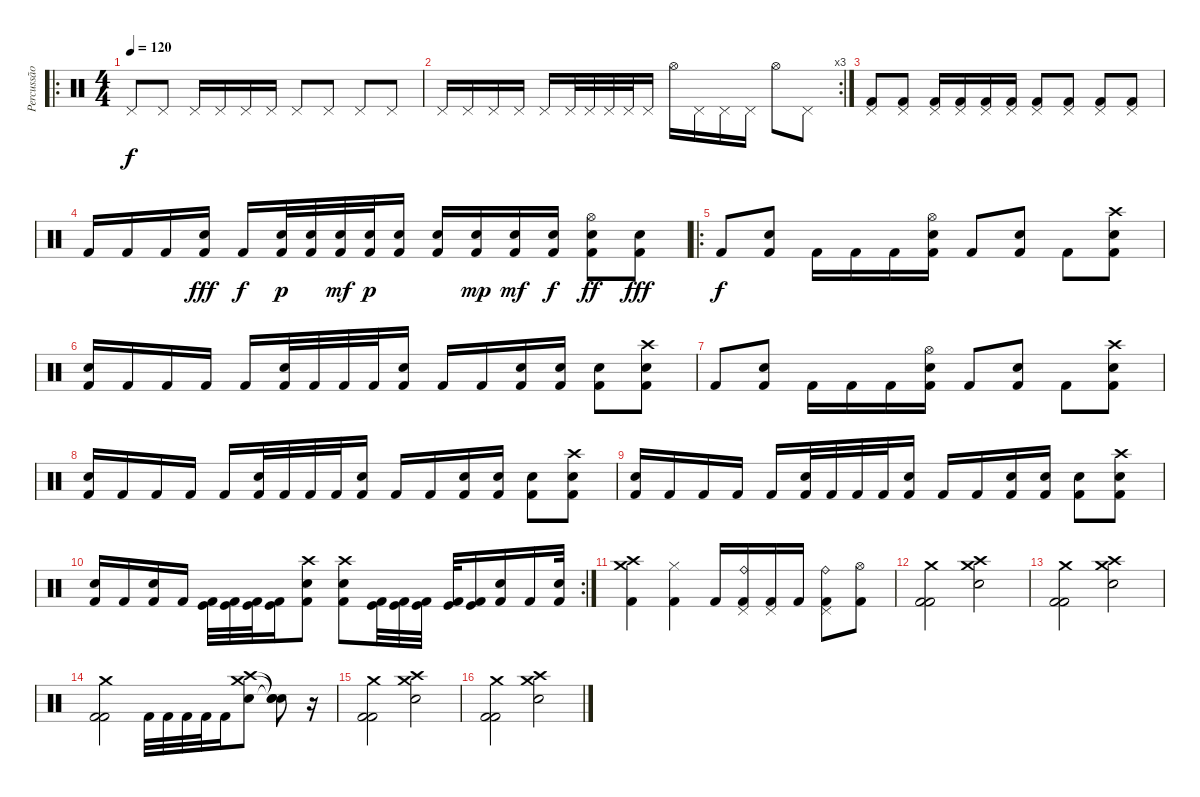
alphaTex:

\track ("Percussão" "Percussão") {instrument percussion}
\staff {score}
\articulation defaults
\ro
\ts (4 4)
\tempo 120
\clef neutral
\ks c "Pedal Hi-Hat (hit)".8{dy f} "Pedal Hi-Hat (hit)".8 "Pedal Hi-Hat (hit)".16 "Pedal Hi-Hat (hit)".16 "Pedal Hi-Hat (hit)".16 "Pedal Hi-Hat (hit)".16 "Pedal Hi-Hat (hit)".8 "Pedal Hi-Hat (hit)".8 "Pedal Hi-Hat (hit)".8 "Pedal Hi-Hat (hit)".8
|
\rc 3 "Pedal Hi-Hat (hit)".16 "Pedal Hi-Hat (hit)".16 "Pedal Hi-Hat (hit)".16 "Pedal Hi-Hat (hit)".16 "Pedal Hi-Hat (hit)".16 "Pedal Hi-Hat (hit)".32 "Pedal Hi-Hat (hit)".32 "Pedal Hi-Hat (hit)".32 "Pedal Hi-Hat (hit)".32 "Pedal Hi-Hat (hit)".16 "Hi-Hat (open)".16 "Pedal Hi-Hat (hit)".16 "Pedal Hi-Hat (hit)".16 "Pedal Hi-Hat (hit)".16 "Hi-Hat (open)".8 "Pedal Hi-Hat (hit)".8
|
("Kick (hit) 2" "Pedal Hi-Hat (hit)").8 ("Kick (hit) 2" "Pedal Hi-Hat (hit)").8 ("Kick (hit) 2" "Pedal Hi-Hat (hit)").16 ("Kick (hit) 2" "Pedal Hi-Hat (hit)").16 ("Kick (hit) 2" "Pedal Hi-Hat (hit)").16 ("Kick (hit) 2" "Pedal Hi-Hat (hit)").16 ("Kick (hit) 2" "Pedal Hi-Hat (hit)").8 ("Kick (hit) 2" "Pedal Hi-Hat (hit)").8 ("Kick (hit) 2" "Pedal Hi-Hat (hit)").8 ("Kick (hit) 2" "Pedal Hi-Hat (hit)").8 |
"Kick (hit) 2".16 "Kick (hit) 2".16 "Kick (hit) 2".16 ("Kick (hit) 2" "Snare (hit) 2").16{dy fff} "Kick (hit) 2".16{dy f} ("Kick (hit) 2" "Snare (hit) 2").32{dy p} ("Kick (hit) 2" "Snare (hit) 2").32 ("Kick (hit) 2" "Snare (hit) 2").32{dy mf} ("Kick (hit) 2" "Snare (hit) 2").32{dy p} ("Kick (hit) 2" "Snare (hit) 2").16 ("Kick (hit) 2" "Snare (hit) 2").16 ("Kick (hit) 2" "Snare (hit) 2").16{dy mp} ("Kick (hit) 2" "Snare (hit) 2").16{dy mf} ("Kick (hit) 2" "Snare (hit) 2").16{dy f} ("Kick (hit) 2" "Hi-Hat (open)" "Snare (hit) 2").8{dy ff} ("Kick (hit) 2" "Snare (hit) 2").8{dy fff} |
\ro "Kick (hit) 2".8{dy f}
("Kick (hit) 2" "Snare (hit) 2").8 "Kick (hit) 2".16 "Kick (hit) 2".16 "Kick (hit) 2".16 ("Kick (hit) 2" "Snare (hit) 2" "Hi-Hat (open)").16 "Kick (hit) 2".8 ("Kick (hit) 2" "Snare (hit) 2").8 "Kick (hit) 2".8 ("Kick (hit) 2" "Snare (hit) 2" "Crash high (hit)").8 |
("Kick (hit) 2" "Snare (hit) 2").16 "Kick (hit) 2".16 "Kick (hit) 2".16 "Kick (hit) 2".16 "Kick (hit) 2".16 ("Kick (hit) 2" "Snare (hit) 2").32 "Kick (hit) 2".32 "Kick (hit) 2".32 "Kick (hit) 2".32 ("Kick (hit) 2" "Snare (hit) 2").16 "Kick (hit) 2".16 "Kick (hit) 2".16 ("Kick (hit) 2" "Snare (hit) 2").16 ("Kick (hit) 2" "Snare (hit) 2").16 ("Kick (hit) 2" "Snare (hit) 2").8 ("Kick (hit) 2" "Snare (hit) 2" "Crash high (hit)").8 |
"Kick (hit) 2".8 ("Kick (hit) 2" "Snare (hit) 2").8 "Kick (hit) 2".16 "Kick (hit) 2".16 "Kick (hit) 2".16 ("Kick (hit) 2" "Snare (hit) 2" "Hi-Hat (open)").16 "Kick (hit) 2".8 ("Kick (hit) 2" "Snare (hit) 2").8 "Kick (hit) 2".8 ("Kick (hit) 2" "Snare (hit) 2" "Crash high (hit)").8 |
("Kick (hit) 2" "Snare (hit) 2").16 "Kick (hit) 2".16 "Kick (hit) 2".16 "Kick (hit) 2".16 "Kick (hit) 2".16 ("Kick (hit) 2" "Snare (hit) 2").32 "Kick (hit) 2".32 "Kick (hit) 2".32 "Kick (hit) 2".32 ("Kick (hit) 2" "Snare (hit) 2").16 "Kick (hit) 2".16 "Kick (hit) 2".16 ("Kick (hit) 2" "Snare (hit) 2").16 ("Kick (hit) 2" "Snare (hit) 2").16 ("Kick (hit) 2" "Snare (hit) 2").8 ("Kick (hit) 2" "Snare (hit) 2" "Crash high (hit)").8 |
("Kick (hit) 2" "Snare (hit) 2").16 "Kick (hit) 2".16 "Kick (hit) 2".16 "Kick (hit) 2".16 "Kick (hit) 2".16 ("Kick (hit) 2" "Snare (hit) 2").32 "Kick (hit) 2".32 "Kick (hit) 2".32 "Kick (hit) 2".32 ("Kick (hit) 2" "Snare (hit) 2").16 "Kick (hit) 2".16 "Kick (hit) 2".16 ("Kick (hit) 2" "Snare (hit) 2").16 ("Kick (hit) 2" "Snare (hit) 2").16 ("Kick (hit) 2" "Snare (hit) 2").8 ("Kick (hit) 2" "Snare (hit) 2" "Crash high (hit)").8 |
\rc 2
("Kick (hit) 2" "Snare (hit) 2").16 "Kick (hit) 2".16 ("Kick (hit) 2" "Snare (hit) 2").16 "Kick (hit) 2".16 ("Kick (hit) 2" "Kick (hit)").32 ("Kick (hit) 2" "Kick (hit)").32 ("Kick (hit) 2" "Kick (hit)").32 ("Kick (hit) 2" "Kick (hit)").16 ("Kick (hit) 2" "Snare (hit) 2" "Crash high (hit)").8 ("Kick (hit) 2" "Snare (hit) 2" "Crash high (hit)").8 ("Kick (hit) 2" "Kick (hit)").32 ("Kick (hit) 2" "Kick (hit)").32 ("Kick (hit) 2" "Kick (hit)").32 ("Kick (hit) 2" "Kick (hit)").32 ("Kick (hit) 2" "Kick (hit)").16 ("Kick (hit) 2" "Snare (hit) 2").16 "Kick (hit) 2".16 ("Kick (hit) 2" "Snare (hit) 2").32 |
("Crash high (hit)" "Crash medium (hit)" "Kick (hit) 2").4 ("Kick (hit) 2" "Hi-Hat (closed)").4 "Kick (hit) 2".16 ("Ride (bell)" "Kick (hit) 2" "Pedal Hi-Hat (hit)").16 ("Kick (hit) 2" "Pedal Hi-Hat (hit)").16 "Kick (hit) 2".16 ("Ride (bell)" "Kick (hit) 2" "Pedal Hi-Hat (hit)").8 ("Kick (hit) 2" "Hi-Hat (open)").8 |
("Kick (hit) 2" "Kick (hit) 2" "Crash medium (hit)").2 ("Crash high (hit)" "Crash medium (hit)" "Snare (hit) 2").2 |
("Kick (hit) 2" "Kick (hit) 2" "Crash medium (hit)").2 ("Crash high (hit)" "Crash medium (hit)" "Snare (hit) 2").2 |
("Kick (hit) 2" "Kick (hit) 2" "Crash medium (hit)").2 "Kick (hit) 2".32 "Kick (hit) 2".32 "Kick (hit) 2".32 "Kick (hit) 2".32 "Kick (hit) 2".16 ("Crash medium (hit)" "Crash high (hit)" "Snare (hit) 2").8 ("Snare (hit)"{t} "Snare (hit)"{t} "Snare (hit)"{t}).8 r.16 |
("Kick (hit) 2" "Kick (hit) 2" "Crash medium (hit)").2 ("Crash high (hit)" "Crash medium (hit)" "Snare (hit) 2").2 |
("Kick (hit) 2" "Kick (hit) 2" "Crash medium (hit)").2 ("Crash high (hit)" "Crash medium (hit)" "Snare (hit) 2").2
